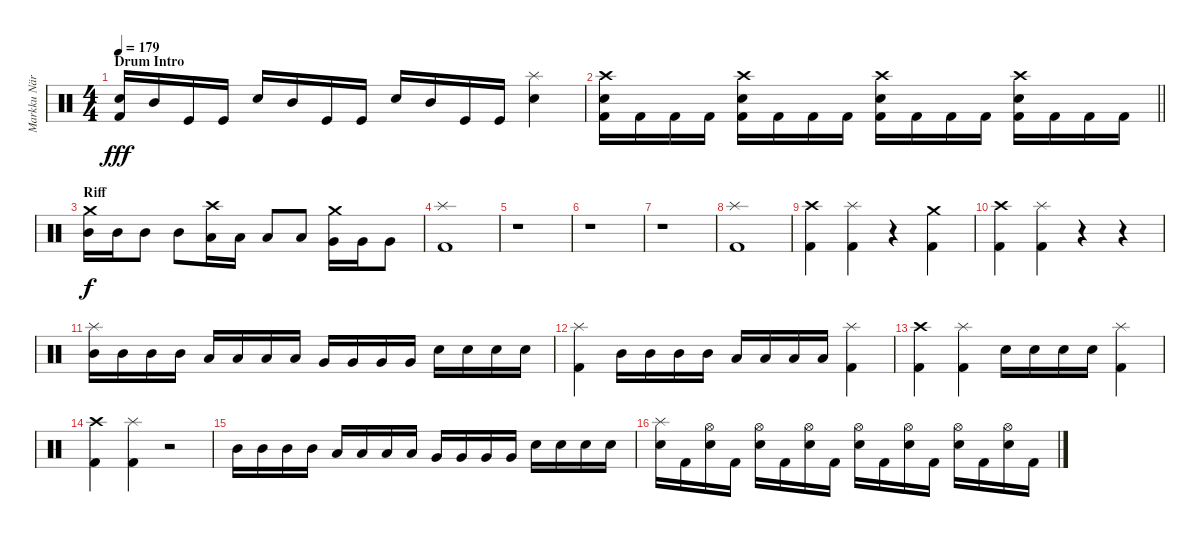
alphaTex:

\track ("Markku Näreneva (Drums)" "Markku När") {instrument percussion}
\staff {score}
\articulation defaults
\ts (4 4)
\section ("" "Drum Intro")
\tempo 179
\clef neutral
\ks c
("Kick (hit) 2" "Snare (hit) 2").16{dy fff} "Mid Tom (hit)".16 "Kick (hit)".16 "Kick (hit)".16 "Snare (hit) 2".16 "Mid Tom (hit)".16 "Kick (hit)".16 "Kick (hit)".16 "Snare (hit) 2".16 "Mid Tom (hit)".16 "Kick (hit)".16 "Kick (hit)".16 ("Snare (hit) 2" "Splash (hit)").4 |
\barLineRight lightlight
("Kick (hit) 2" "Snare (hit) 2" "Crash high (hit)").16 "Kick (hit) 2".16 "Kick (hit) 2".16 "Kick (hit) 2".16 ("Kick (hit) 2" "Snare (hit) 2" "Crash high (hit)").16 "Kick (hit) 2".16 "Kick (hit) 2".16 "Kick (hit) 2".16 ("Kick (hit) 2" "Snare (hit) 2" "Crash high (hit)").16 "Kick (hit) 2".16 "Kick (hit) 2".16 "Kick (hit) 2".16 ("Kick (hit) 2" "Snare (hit) 2" "Crash high (hit)").16 "Kick (hit) 2".16 "Kick (hit) 2".16 "Kick (hit) 2".16 |
\section ("" "Riff")
("Crash medium (hit)" "Mid Tom (hit)").16{dy f} "Mid Tom (hit)".16 "Mid Tom (hit)".8 "Mid Tom (hit)".8 ("Crash high (hit)" "Low Tom (hit)").16 "Low Tom (hit)".16 "Low Tom (hit)".8 "Low Tom (hit)".8 ("Crash medium (hit)" "Very Low Tom (hit)").16 "Very Low Tom (hit)".16 "Very Low Tom (hit)".8 |
("Kick (hit) 2" "Splash (hit)").1 |
r.1 |
r.1 |
r.1 |
("Kick (hit) 2" "Splash (hit)").1 |
("Kick (hit) 2" "Crash high (hit)").4 ("Kick (hit) 2" "Splash (hit)").4 r.4 ("Kick (hit) 2" "Crash medium (hit)").4 |
("Kick (hit) 2" "Crash high (hit)").4 ("Kick (hit) 2" "Splash (hit)").4 r.4 r.4 |
("Splash (hit)" "Mid Tom (hit)").16 "Mid Tom (hit)".16 "Mid Tom (hit)".16 "Mid Tom (hit)".16 "Low Tom (hit)".16 "Low Tom (hit)".16 "Low Tom (hit)".16 "Low Tom (hit)".16 "Very Low Tom (hit)".16 "Very Low Tom (hit)".16 "Very Low Tom (hit)".16 "Very Low Tom (hit)".16 "Snare (hit) 2".16 "Snare (hit) 2".16 "Snare (hit) 2".16 "Snare (hit) 2".16 |
("Kick (hit) 2" "Splash (hit)").4 "Mid Tom (hit)".16 "Mid Tom (hit)".16 "Mid Tom (hit)".16 "Mid Tom (hit)".16 "Low Tom (hit)".16 "Low Tom (hit)".16 "Low Tom (hit)".16 "Low Tom (hit)".16 ("Kick (hit) 2" "Splash (hit)").4 |
("Kick (hit) 2" "Crash high (hit)").4 ("Kick (hit) 2" "Splash (hit)").4 "Snare (hit) 2".16 "Snare (hit) 2".16 "Snare (hit) 2".16 "Snare (hit) 2".16 ("Kick (hit) 2" "Splash (hit)").4 |
("Kick (hit) 2" "Crash high (hit)").4 ("Kick (hit) 2" "Splash (hit)").4 r.2 |
"Mid Tom (hit)".16 "Mid Tom (hit)".16 "Mid Tom (hit)".16 "Mid Tom (hit)".16 "Low Tom (hit)".16 "Low Tom (hit)".16 "Low Tom (hit)".16 "Low Tom (hit)".16 "Very Low Tom (hit)".16 "Very Low Tom (hit)".16 "Very Low Tom (hit)".16 "Very Low Tom (hit)".16 "Snare (hit) 2".16 "Snare (hit) 2".16 "Snare (hit) 2".16 "Snare (hit) 2".16 |
("Snare (hit) 2" "Splash (hit)").16 "Kick (hit) 2".16 ("Snare (hit) 2" "Hi-Hat (open)").16 "Kick (hit) 2".16 ("Snare (hit) 2" "Hi-Hat (open)").16 "Kick (hit) 2".16 ("Snare (hit) 2" "Hi-Hat (open)").16 "Kick (hit) 2".16 ("Snare (hit) 2" "Hi-Hat (open)").16 "Kick (hit) 2".16 ("Snare (hit) 2" "Hi-Hat (open)").16 "Kick (hit) 2".16 ("Snare (hit) 2" "Hi-Hat (open)").16 "Kick (hit) 2".16 ("Snare (hit) 2" "Hi-Hat (open)").16 "Kick (hit) 2".16
